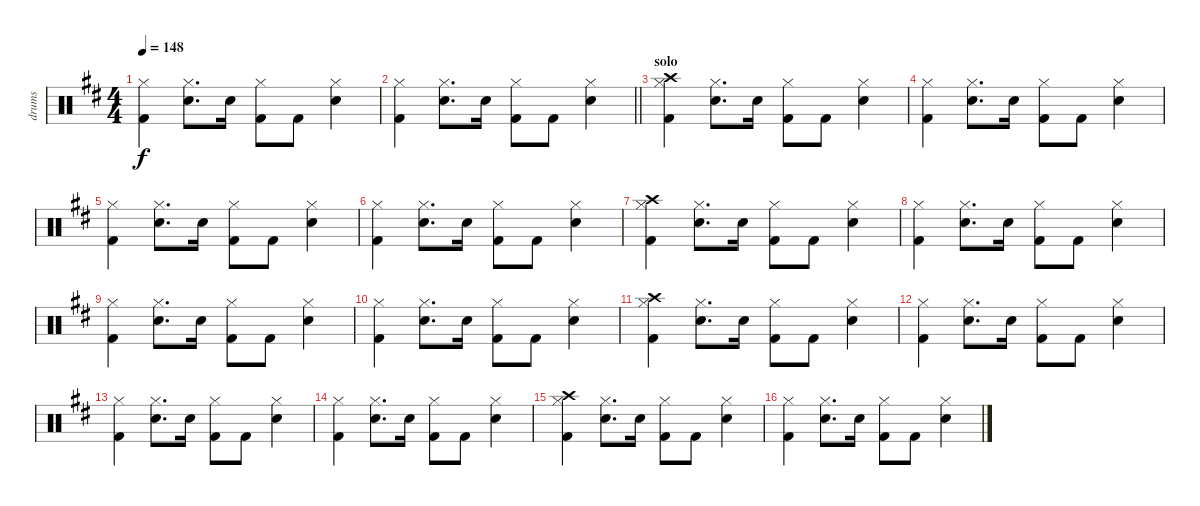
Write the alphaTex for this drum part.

\track ("drums" "drums") {instrument percussion}
\staff {score}
\articulation defaults
\ts (4 4)
\tempo 148
\clef neutral
\ks d
("Hi-Hat (closed)" "Kick (hit) 2").4{dy f} ("Hi-Hat (closed)" "Electric Snare (hit)").8{d} "Electric Snare (hit)".16 ("Hi-Hat (closed)" "Kick (hit) 2").8 "Kick (hit) 2".8 ("Hi-Hat (closed)" "Electric Snare (hit)").4 |
\barLineRight lightlight
("Hi-Hat (closed)" "Kick (hit) 2").4 ("Hi-Hat (closed)" "Electric Snare (hit)").8{d} "Electric Snare (hit)".16 ("Hi-Hat (closed)" "Kick (hit) 2").8 "Kick (hit) 2".8 ("Hi-Hat (closed)" "Electric Snare (hit)").4 |
\section ("" "solo")
("Hi-Hat (closed)" "Kick (hit) 2" "Crash high (hit)").4 ("Hi-Hat (closed)" "Electric Snare (hit)").8{d} "Electric Snare (hit)".16 ("Hi-Hat (closed)" "Kick (hit) 2").8 "Kick (hit) 2".8 ("Hi-Hat (closed)" "Electric Snare (hit)").4 |
("Hi-Hat (closed)" "Kick (hit) 2").4 ("Hi-Hat (closed)" "Electric Snare (hit)").8{d} "Electric Snare (hit)".16 ("Hi-Hat (closed)" "Kick (hit) 2").8 "Kick (hit) 2".8 ("Hi-Hat (closed)" "Electric Snare (hit)").4 |
("Hi-Hat (closed)" "Kick (hit) 2").4 ("Hi-Hat (closed)" "Electric Snare (hit)").8{d} "Electric Snare (hit)".16 ("Hi-Hat (closed)" "Kick (hit) 2").8 "Kick (hit) 2".8 ("Hi-Hat (closed)" "Electric Snare (hit)").4 |
("Hi-Hat (closed)" "Kick (hit) 2").4 ("Hi-Hat (closed)" "Electric Snare (hit)").8{d} "Electric Snare (hit)".16 ("Hi-Hat (closed)" "Kick (hit) 2").8 "Kick (hit) 2".8 ("Hi-Hat (closed)" "Electric Snare (hit)").4 |
("Hi-Hat (closed)" "Kick (hit) 2" "Crash high (hit)").4 ("Hi-Hat (closed)" "Electric Snare (hit)").8{d} "Electric Snare (hit)".16 ("Hi-Hat (closed)" "Kick (hit) 2").8 "Kick (hit) 2".8 ("Hi-Hat (closed)" "Electric Snare (hit)").4 |
("Hi-Hat (closed)" "Kick (hit) 2").4 ("Hi-Hat (closed)" "Electric Snare (hit)").8{d} "Electric Snare (hit)".16 ("Hi-Hat (closed)" "Kick (hit) 2").8 "Kick (hit) 2".8 ("Hi-Hat (closed)" "Electric Snare (hit)").4 |
("Hi-Hat (closed)" "Kick (hit) 2").4 ("Hi-Hat (closed)" "Electric Snare (hit)").8{d} "Electric Snare (hit)".16 ("Hi-Hat (closed)" "Kick (hit) 2").8 "Kick (hit) 2".8 ("Hi-Hat (closed)" "Electric Snare (hit)").4 |
("Hi-Hat (closed)" "Kick (hit) 2").4 ("Hi-Hat (closed)" "Electric Snare (hit)").8{d} "Electric Snare (hit)".16 ("Hi-Hat (closed)" "Kick (hit) 2").8 "Kick (hit) 2".8 ("Hi-Hat (closed)" "Electric Snare (hit)").4 |
("Hi-Hat (closed)" "Kick (hit) 2" "Crash high (hit)").4 ("Hi-Hat (closed)" "Electric Snare (hit)").8{d} "Electric Snare (hit)".16 ("Hi-Hat (closed)" "Kick (hit) 2").8 "Kick (hit) 2".8 ("Hi-Hat (closed)" "Electric Snare (hit)").4 |
("Hi-Hat (closed)" "Kick (hit) 2").4 ("Hi-Hat (closed)" "Electric Snare (hit)").8{d} "Electric Snare (hit)".16 ("Hi-Hat (closed)" "Kick (hit) 2").8 "Kick (hit) 2".8 ("Hi-Hat (closed)" "Electric Snare (hit)").4 |
("Hi-Hat (closed)" "Kick (hit) 2").4 ("Hi-Hat (closed)" "Electric Snare (hit)").8{d} "Electric Snare (hit)".16 ("Hi-Hat (closed)" "Kick (hit) 2").8 "Kick (hit) 2".8 ("Hi-Hat (closed)" "Electric Snare (hit)").4 |
("Hi-Hat (closed)" "Kick (hit) 2").4 ("Hi-Hat (closed)" "Electric Snare (hit)").8{d} "Electric Snare (hit)".16 ("Hi-Hat (closed)" "Kick (hit) 2").8 "Kick (hit) 2".8 ("Hi-Hat (closed)" "Electric Snare (hit)").4 |
("Hi-Hat (closed)" "Kick (hit) 2" "Crash high (hit)").4 ("Hi-Hat (closed)" "Electric Snare (hit)").8{d} "Electric Snare (hit)".16 ("Hi-Hat (closed)" "Kick (hit) 2").8 "Kick (hit) 2".8 ("Hi-Hat (closed)" "Electric Snare (hit)").4 |
("Hi-Hat (closed)" "Kick (hit) 2").4 ("Hi-Hat (closed)" "Electric Snare (hit)").8{d} "Electric Snare (hit)".16 ("Hi-Hat (closed)" "Kick (hit) 2").8 "Kick (hit) 2".8 ("Hi-Hat (closed)" "Electric Snare (hit)").4
